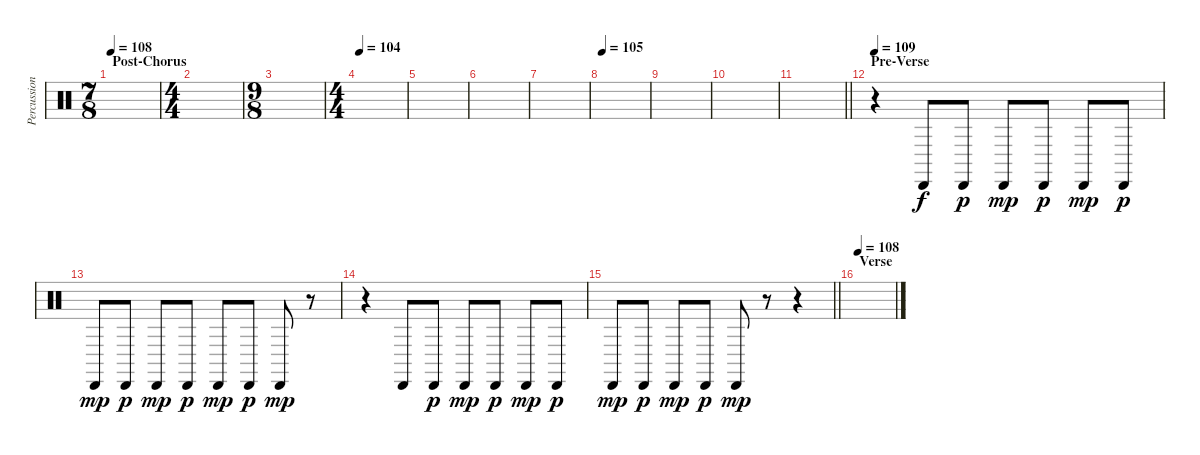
\track ("Percussions" "Percussion") {instrument percussion}
\staff {score}
\articulation defaults
\ts (7 8)
\section ("" "Post-Chorus")
\tempo 108
\clef neutral
\ks c
|
\ts (4 4)
|
\ts (9 8)
|
\ts (4 4)
\tempo 104
|
|
|
|
\tempo 105
|
|
|
\barLineRight lightlight
|
\section ("" "Pre-Verse")
\tempo 109
r.4 "Cabasa (hit)".8 "Cabasa (hit)".8{dy p} "Cabasa (hit)".8{dy mp} "Cabasa (hit)".8{dy p} "Cabasa (hit)".8{dy mp} "Cabasa (hit)".8{dy p} |
"Cabasa (hit)".8{dy mp} "Cabasa (hit)".8{dy p} "Cabasa (hit)".8{dy mp} "Cabasa (hit)".8{dy p} "Cabasa (hit)".8{dy mp} "Cabasa (hit)".8{dy p} "Cabasa (hit)".8{dy mp} r.8 |
r.4 "Cabasa (hit)".8 "Cabasa (hit)".8{dy p} "Cabasa (hit)".8{dy mp} "Cabasa (hit)".8{dy p} "Cabasa (hit)".8{dy mp} "Cabasa (hit)".8{dy p} |
\barLineRight lightlight "Cabasa (hit)".8{dy mp} "Cabasa (hit)".8{dy p} "Cabasa (hit)".8{dy mp} "Cabasa (hit)".8{dy p} "Cabasa (hit)".8{dy mp}
r.8 r.4 |
\section ("" "Verse")
\tempo 108
